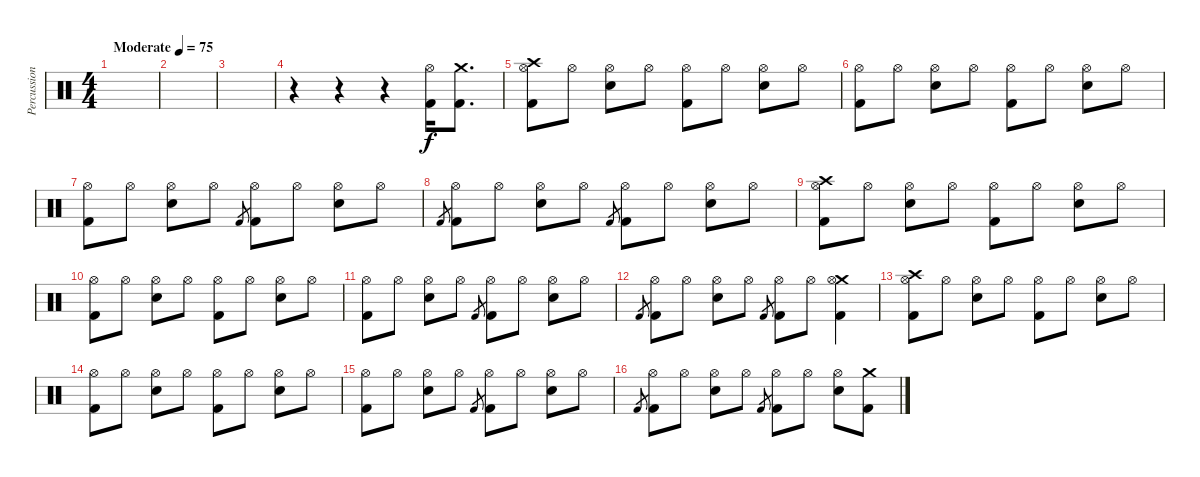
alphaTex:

\track ("Percussions" "Percussion") {instrument percussion}
\staff {score}
\articulation defaults
\ts (4 4)
\tempo (75 "Moderate")
\clef neutral
\ks c
|
|
|
r.4 r.4 r.4 ("Hi-Hat (open)" "Kick (hit) 2").16 ("Crash medium (hit)" "Kick (hit) 2").8{d} |
("Crash high (hit)" "Hi-Hat (open)" "Kick (hit) 2").8 "Hi-Hat (open)".8 ("Hi-Hat (open)" "Snare (hit) 2").8 "Hi-Hat (open)".8 ("Hi-Hat (open)" "Kick (hit) 2").8 "Hi-Hat (open)".8 ("Hi-Hat (open)" "Snare (hit) 2").8 "Hi-Hat (open)".8 |
("Hi-Hat (open)" "Kick (hit) 2").8 "Hi-Hat (open)".8 ("Hi-Hat (open)" "Snare (hit) 2").8 "Hi-Hat (open)".8 ("Hi-Hat (open)" "Kick (hit) 2").8 "Hi-Hat (open)".8 ("Hi-Hat (open)" "Snare (hit) 2").8 "Hi-Hat (open)".8 |
("Hi-Hat (open)" "Kick (hit) 2").8 "Hi-Hat (open)".8 ("Hi-Hat (open)" "Snare (hit) 2").8 "Hi-Hat (open)".8 "Kick (hit) 2".8{gr} ("Hi-Hat (open)" "Kick (hit) 2").8 "Hi-Hat (open)".8 ("Hi-Hat (open)" "Snare (hit) 2").8 "Hi-Hat (open)".8 |
"Kick (hit) 2".8{gr} ("Hi-Hat (open)" "Kick (hit) 2").8 "Hi-Hat (open)".8 ("Hi-Hat (open)" "Snare (hit) 2").8 "Hi-Hat (open)".8 "Kick (hit) 2".8{gr} ("Hi-Hat (open)" "Kick (hit) 2").8 "Hi-Hat (open)".8 ("Hi-Hat (open)" "Snare (hit) 2").8 "Hi-Hat (open)".8 |
("Crash high (hit)" "Hi-Hat (open)" "Kick (hit) 2").8 "Hi-Hat (open)".8 ("Hi-Hat (open)" "Snare (hit) 2").8 "Hi-Hat (open)".8 ("Hi-Hat (open)" "Kick (hit) 2").8 "Hi-Hat (open)".8 ("Hi-Hat (open)" "Snare (hit) 2").8 "Hi-Hat (open)".8 |
("Hi-Hat (open)" "Kick (hit) 2").8 "Hi-Hat (open)".8 ("Hi-Hat (open)" "Snare (hit) 2").8 "Hi-Hat (open)".8 ("Hi-Hat (open)" "Kick (hit) 2").8 "Hi-Hat (open)".8 ("Hi-Hat (open)" "Snare (hit) 2").8 "Hi-Hat (open)".8 |
("Hi-Hat (open)" "Kick (hit) 2").8 "Hi-Hat (open)".8 ("Hi-Hat (open)" "Snare (hit) 2").8 "Hi-Hat (open)".8 "Kick (hit) 2".8{gr} ("Hi-Hat (open)" "Kick (hit) 2").8 "Hi-Hat (open)".8 ("Hi-Hat (open)" "Snare (hit) 2").8 "Hi-Hat (open)".8 |
"Kick (hit) 2".8{gr} ("Hi-Hat (open)" "Kick (hit) 2").8 "Hi-Hat (open)".8 ("Hi-Hat (open)" "Snare (hit) 2").8 "Hi-Hat (open)".8 "Kick (hit) 2".8{gr} ("Hi-Hat (open)" "Kick (hit) 2").8 "Hi-Hat (open)".8 ("Crash medium (hit)" "Hi-Hat (open)" "Kick (hit) 2").4 |
("Crash high (hit)" "Hi-Hat (open)" "Kick (hit) 2").8 "Hi-Hat (open)".8 ("Hi-Hat (open)" "Snare (hit) 2").8 "Hi-Hat (open)".8 ("Hi-Hat (open)" "Kick (hit) 2").8 "Hi-Hat (open)".8 ("Hi-Hat (open)" "Snare (hit) 2").8 "Hi-Hat (open)".8 |
("Hi-Hat (open)" "Kick (hit) 2").8 "Hi-Hat (open)".8 ("Hi-Hat (open)" "Snare (hit) 2").8 "Hi-Hat (open)".8 ("Hi-Hat (open)" "Kick (hit) 2").8 "Hi-Hat (open)".8 ("Hi-Hat (open)" "Snare (hit) 2").8 "Hi-Hat (open)".8 |
("Hi-Hat (open)" "Kick (hit) 2").8 "Hi-Hat (open)".8 ("Hi-Hat (open)" "Snare (hit) 2").8 "Hi-Hat (open)".8 "Kick (hit) 2".8{gr} ("Hi-Hat (open)" "Kick (hit) 2").8 "Hi-Hat (open)".8 ("Hi-Hat (open)" "Snare (hit) 2").8 "Hi-Hat (open)".8 |
"Kick (hit) 2".8{gr} ("Hi-Hat (open)" "Kick (hit) 2").8 "Hi-Hat (open)".8 ("Hi-Hat (open)" "Snare (hit) 2").8 "Hi-Hat (open)".8 "Kick (hit) 2".8{gr} ("Hi-Hat (open)" "Kick (hit) 2").8 "Hi-Hat (open)".8 ("Hi-Hat (open)" "Snare (hit) 2").8 ("Crash medium (hit)" "Kick (hit) 2").8
